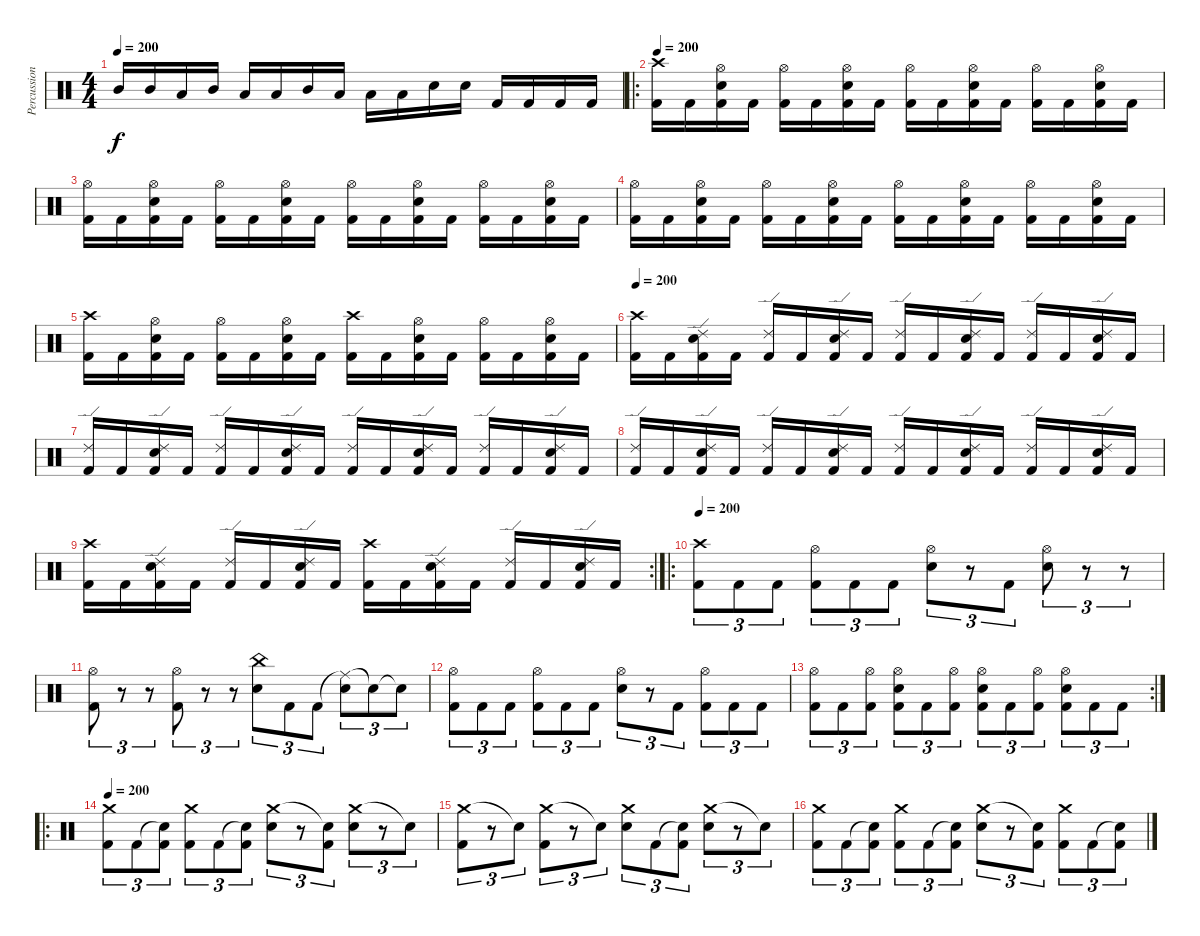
\track ("Percussion" "Percussion") {instrument percussion}
\staff {score}
\articulation defaults
\ts (4 4)
\tempo 200
\clef neutral
\ks c "Mid Tom (hit)".16{dy f} "Mid Tom (hit)".16 "Low Tom (hit)".16 "Mid Tom (hit)".16 "Low Tom (hit)".16 "Low Tom (hit)".16 "Mid Tom (hit)".16 "Low Tom (hit)".16 "Low Floor Tom (hit)".16 "Low Floor Tom (hit)".16 "Electric Snare (hit)".16 "Electric Snare (hit)".16 "Kick (hit) 2".16 "Kick (hit) 2".16 "Kick (hit) 2".16 "Kick (hit) 2".16
|
\ro
\tempo 200
("Crash high (hit)" "Kick (hit) 2").16 "Kick (hit) 2".16 ("Hi-Hat (open)" "Electric Snare (hit)" "Kick (hit) 2").16 "Kick (hit) 2".16 ("Hi-Hat (open)" "Kick (hit) 2").16 "Kick (hit) 2".16 ("Hi-Hat (open)" "Electric Snare (hit)" "Kick (hit) 2").16 "Kick (hit) 2".16 ("Hi-Hat (open)" "Kick (hit) 2").16 "Kick (hit) 2".16 ("Hi-Hat (open)" "Electric Snare (hit)" "Kick (hit) 2").16 "Kick (hit) 2".16 ("Hi-Hat (open)" "Kick (hit) 2").16 "Kick (hit) 2".16 ("Hi-Hat (open)" "Electric Snare (hit)" "Kick (hit) 2").16 "Kick (hit) 2".16 |
("Hi-Hat (open)" "Kick (hit) 2").16 "Kick (hit) 2".16 ("Hi-Hat (open)" "Electric Snare (hit)" "Kick (hit) 2").16 "Kick (hit) 2".16 ("Hi-Hat (open)" "Kick (hit) 2").16 "Kick (hit) 2".16 ("Hi-Hat (open)" "Electric Snare (hit)" "Kick (hit) 2").16 "Kick (hit) 2".16 ("Hi-Hat (open)" "Kick (hit) 2").16 "Kick (hit) 2".16 ("Hi-Hat (open)" "Electric Snare (hit)" "Kick (hit) 2").16 "Kick (hit) 2".16 ("Hi-Hat (open)" "Kick (hit) 2").16 "Kick (hit) 2".16 ("Hi-Hat (open)" "Electric Snare (hit)" "Kick (hit) 2").16 "Kick (hit) 2".16 |
("Hi-Hat (open)" "Kick (hit) 2").16 "Kick (hit) 2".16 ("Hi-Hat (open)" "Electric Snare (hit)" "Kick (hit) 2").16 "Kick (hit) 2".16 ("Hi-Hat (open)" "Kick (hit) 2").16 "Kick (hit) 2".16 ("Hi-Hat (open)" "Electric Snare (hit)" "Kick (hit) 2").16 "Kick (hit) 2".16 ("Hi-Hat (open)" "Kick (hit) 2").16 "Kick (hit) 2".16 ("Hi-Hat (open)" "Electric Snare (hit)" "Kick (hit) 2").16 "Kick (hit) 2".16 ("Hi-Hat (open)" "Kick (hit) 2").16 "Kick (hit) 2".16 ("Hi-Hat (open)" "Electric Snare (hit)" "Kick (hit) 2").16 "Kick (hit) 2".16 |
("Crash high (hit)" "Kick (hit) 2").16 "Kick (hit) 2".16 ("Hi-Hat (open)" "Electric Snare (hit)" "Kick (hit) 2").16 "Kick (hit) 2".16 ("Hi-Hat (open)" "Kick (hit) 2").16 "Kick (hit) 2".16 ("Hi-Hat (open)" "Electric Snare (hit)" "Kick (hit) 2").16 "Kick (hit) 2".16 ("Crash high (hit)" "Kick (hit) 2").16 "Kick (hit) 2".16 ("Hi-Hat (open)" "Electric Snare (hit)" "Kick (hit) 2").16 "Kick (hit) 2".16 ("Hi-Hat (open)" "Kick (hit) 2").16 "Kick (hit) 2".16 ("Hi-Hat (open)" "Electric Snare (hit)" "Kick (hit) 2").16 "Kick (hit) 2".16 |
\tempo 200
("Crash high (hit)" "Kick (hit) 2").16 "Kick (hit) 2".16 ("Ride (edge) 2" "Electric Snare (hit)" "Kick (hit) 2").16 "Kick (hit) 2".16 ("Ride (edge) 2" "Kick (hit) 2").16 "Kick (hit) 2".16 ("Ride (edge) 2" "Electric Snare (hit)" "Kick (hit) 2").16 "Kick (hit) 2".16 ("Ride (edge) 2" "Kick (hit) 2").16 "Kick (hit) 2".16 ("Ride (edge) 2" "Electric Snare (hit)" "Kick (hit) 2").16 "Kick (hit) 2".16 ("Ride (edge) 2" "Kick (hit) 2").16 "Kick (hit) 2".16 ("Ride (edge) 2" "Electric Snare (hit)" "Kick (hit) 2").16 "Kick (hit) 2".16 |
("Ride (edge) 2" "Kick (hit) 2").16 "Kick (hit) 2".16 ("Ride (edge) 2" "Electric Snare (hit)" "Kick (hit) 2").16 "Kick (hit) 2".16 ("Ride (edge) 2" "Kick (hit) 2").16 "Kick (hit) 2".16 ("Ride (edge) 2" "Electric Snare (hit)" "Kick (hit) 2").16 "Kick (hit) 2".16 ("Ride (edge) 2" "Kick (hit) 2").16 "Kick (hit) 2".16 ("Ride (edge) 2" "Electric Snare (hit)" "Kick (hit) 2").16 "Kick (hit) 2".16 ("Ride (edge) 2" "Kick (hit) 2").16 "Kick (hit) 2".16 ("Ride (edge) 2" "Electric Snare (hit)" "Kick (hit) 2").16 "Kick (hit) 2".16 |
("Ride (edge) 2" "Kick (hit) 2").16 "Kick (hit) 2".16 ("Ride (edge) 2" "Electric Snare (hit)" "Kick (hit) 2").16 "Kick (hit) 2".16 ("Ride (edge) 2" "Kick (hit) 2").16 "Kick (hit) 2".16 ("Ride (edge) 2" "Electric Snare (hit)" "Kick (hit) 2").16 "Kick (hit) 2".16 ("Ride (edge) 2" "Kick (hit) 2").16 "Kick (hit) 2".16 ("Ride (edge) 2" "Electric Snare (hit)" "Kick (hit) 2").16 "Kick (hit) 2".16 ("Ride (edge) 2" "Kick (hit) 2").16 "Kick (hit) 2".16 ("Ride (edge) 2" "Electric Snare (hit)" "Kick (hit) 2").16 "Kick (hit) 2".16 |
\rc 2
("Crash high (hit)" "Kick (hit) 2").16 "Kick (hit) 2".16 ("Ride (edge) 2" "Electric Snare (hit)" "Kick (hit) 2").16 "Kick (hit) 2".16 ("Ride (edge) 2" "Kick (hit) 2").16 "Kick (hit) 2".16 ("Ride (edge) 2" "Electric Snare (hit)" "Kick (hit) 2").16 "Kick (hit) 2".16 ("Crash high (hit)" "Kick (hit) 2").16 "Kick (hit) 2".16 ("Ride (edge) 2" "Electric Snare (hit)" "Kick (hit) 2").16 "Kick (hit) 2".16 ("Ride (edge) 2" "Kick (hit) 2").16 "Kick (hit) 2".16 ("Ride (edge) 2" "Electric Snare (hit)" "Kick (hit) 2").16 "Kick (hit) 2".16 |
\ro
\tempo 200
("Crash high (hit)" "Kick (hit) 2").8{tu (3 2)} "Kick (hit) 2".8{tu (3 2)} "Kick (hit) 2".8{tu (3 2)} ("Hi-Hat (open)" "Kick (hit) 2").8{tu (3 2)} "Kick (hit) 2".8{tu (3 2)} "Kick (hit) 2".8{tu (3 2)} ("Hi-Hat (open)" "Electric Snare (hit)").8{tu (3 2)} r.8{tu (3 2)} "Kick (hit) 2".8{tu (3 2)} ("Hi-Hat (open)" "Electric Snare (hit)").8{tu (3 2)} r.8{tu (3 2)} r.8{tu (3 2)} |
("Hi-Hat (open)" "Kick (hit) 2").8{tu (3 2)} r.8{tu (3 2)} r.8{tu (3 2)} ("Hi-Hat (open)" "Kick (hit) 2").8{tu (3 2)} r.8{tu (3 2)} r.8{tu (3 2)} ("China (hit)" "Electric Snare (hit)").8{tu (3 2)} "Kick (hit) 2".8{tu (3 2)} "Kick (hit) 2".8{tu (3 2)} ("Ride (middle)"{t} "Electric Snare (hit)").8{tu (3 2)} "Snare (hit)"{t}.8{tu (3 2)} "Snare (hit)"{t}.8{tu (3 2)} |
("Hi-Hat (open)" "Kick (hit) 2").8{tu (3 2)} "Kick (hit) 2".8{tu (3 2)} "Kick (hit) 2".8{tu (3 2)} ("Hi-Hat (open)" "Kick (hit) 2").8{tu (3 2)} "Kick (hit) 2".8{tu (3 2)} "Kick (hit) 2".8{tu (3 2)} ("Hi-Hat (open)" "Electric Snare (hit)").8{tu (3 2)} r.8{tu (3 2)} "Kick (hit) 2".8{tu (3 2)} ("Hi-Hat (open)" "Kick (hit) 2").8{tu (3 2)} "Kick (hit) 2".8{tu (3 2)} "Kick (hit) 2".8{tu (3 2)} |
\rc 2
("Hi-Hat (open)" "Kick (hit) 2").8{tu (3 2)} "Kick (hit) 2".8{tu (3 2)} ("Hi-Hat (open)" "Kick (hit) 2").8{tu (3 2)} ("Hi-Hat (open)" "Electric Snare (hit)" "Kick (hit) 2").8{tu (3 2)} "Kick (hit) 2".8{tu (3 2)} ("Hi-Hat (open)" "Kick (hit) 2").8{tu (3 2)} ("Hi-Hat (open)" "Electric Snare (hit)" "Kick (hit) 2").8{tu (3 2)} "Kick (hit) 2".8{tu (3 2)} ("Hi-Hat (open)" "Kick (hit) 2").8{tu (3 2)} ("Hi-Hat (open)" "Electric Snare (hit)" "Kick (hit) 2").8{tu (3 2)} "Kick (hit) 2".8{tu (3 2)} "Kick (hit) 2".8{tu (3 2)} |
\ro
\tempo 200
("Crash medium (hit)" "Kick (hit) 2").8{tu (3 2)} "Kick (hit) 2".8{tu (3 2)} ("Snare (hit)"{t} "Kick (hit) 2").8{tu (3 2)} ("Crash medium (hit)" "Kick (hit) 2").8{tu (3 2)} "Kick (hit) 2".8{tu (3 2)} ("Snare (hit)"{t} "Kick (hit) 2").8{tu (3 2)} ("Crash medium (hit)" "Electric Snare (hit)").8{tu (3 2)} r.8{tu (3 2)} ("Snare (hit)"{t} "Kick (hit) 2").8{tu (3 2)} ("Crash medium (hit)" "Electric Snare (hit)").8{tu (3 2)} r.8{tu (3 2)} "Snare (hit)"{t}.8{tu (3 2)} |
("Crash medium (hit)" "Kick (hit) 2").8{tu (3 2)} r.8{tu (3 2)} "Snare (hit)"{t}.8{tu (3 2)} ("Crash medium (hit)" "Kick (hit) 2").8{tu (3 2)} r.8{tu (3 2)} "Snare (hit)"{t}.8{tu (3 2)} ("Crash medium (hit)" "Electric Snare (hit)").8{tu (3 2)} "Kick (hit) 2".8{tu (3 2)} ("Snare (hit)"{t} "Kick (hit) 2").8{tu (3 2)} ("Crash medium (hit)" "Electric Snare (hit)").8{tu (3 2)} r.8{tu (3 2)} "Snare (hit)"{t}.8{tu (3 2)} |
("Crash medium (hit)" "Kick (hit) 2").8{tu (3 2)} "Kick (hit) 2".8{tu (3 2)} ("Snare (hit)"{t} "Kick (hit) 2").8{tu (3 2)} ("Crash medium (hit)" "Kick (hit) 2").8{tu (3 2)} "Kick (hit) 2".8{tu (3 2)} ("Snare (hit)"{t} "Kick (hit) 2").8{tu (3 2)} ("Crash medium (hit)" "Electric Snare (hit)").8{tu (3 2)} r.8{tu (3 2)} ("Snare (hit)"{t} "Kick (hit) 2").8{tu (3 2)} ("Crash medium (hit)" "Kick (hit) 2").8{tu (3 2)} "Kick (hit) 2".8{tu (3 2)} ("Snare (hit)"{t} "Kick (hit) 2").8{tu (3 2)}
